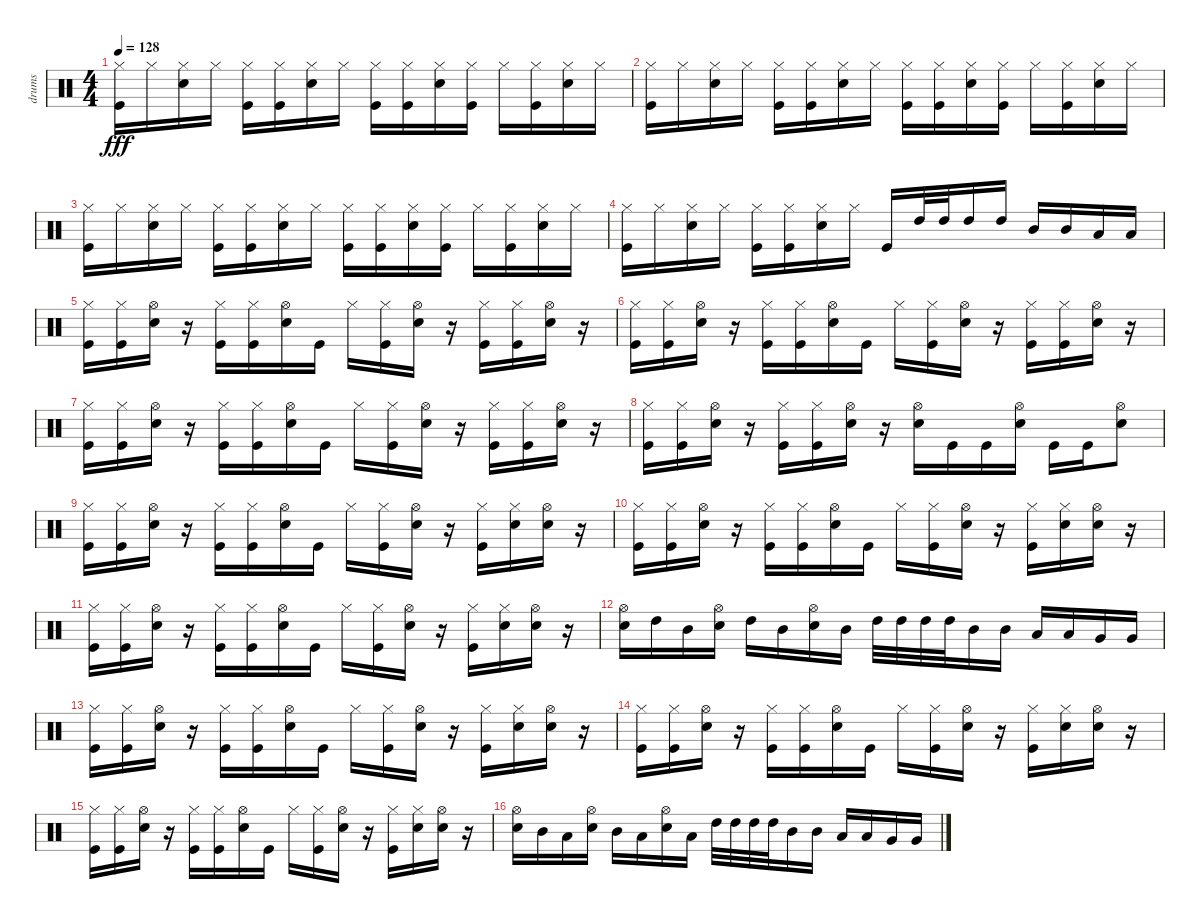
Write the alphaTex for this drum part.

\track ("drums" "drums") {instrument percussion}
\staff {score}
\articulation defaults
\ts (4 4)
\tempo 128
\clef neutral
\ks c
("Hi-Hat (closed)" "Kick (hit)").16{dy fff} "Hi-Hat (closed)".16 ("Hi-Hat (closed)" "Snare (hit) 2").16 "Hi-Hat (closed)".16 ("Kick (hit)" "Hi-Hat (closed)").16 ("Kick (hit)" "Hi-Hat (closed)").16 ("Snare (hit) 2" "Hi-Hat (closed)").16 "Hi-Hat (closed)".16 ("Kick (hit)" "Hi-Hat (closed)").16 ("Kick (hit)" "Hi-Hat (closed)").16 ("Snare (hit) 2" "Hi-Hat (closed)").16 ("Hi-Hat (closed)" "Kick (hit)").16 "Hi-Hat (closed)".16 ("Kick (hit)" "Hi-Hat (closed)").16 ("Snare (hit) 2" "Hi-Hat (closed)").16 "Hi-Hat (closed)".16 |
("Hi-Hat (closed)" "Kick (hit)").16 "Hi-Hat (closed)".16 ("Hi-Hat (closed)" "Snare (hit) 2").16 "Hi-Hat (closed)".16 ("Kick (hit)" "Hi-Hat (closed)").16 ("Kick (hit)" "Hi-Hat (closed)").16 ("Snare (hit) 2" "Hi-Hat (closed)").16 "Hi-Hat (closed)".16 ("Kick (hit)" "Hi-Hat (closed)").16 ("Kick (hit)" "Hi-Hat (closed)").16 ("Snare (hit) 2" "Hi-Hat (closed)").16 ("Hi-Hat (closed)" "Kick (hit)").16 "Hi-Hat (closed)".16 ("Kick (hit)" "Hi-Hat (closed)").16 ("Snare (hit) 2" "Hi-Hat (closed)").16 "Hi-Hat (closed)".16 |
("Hi-Hat (closed)" "Kick (hit)").16 "Hi-Hat (closed)".16 ("Hi-Hat (closed)" "Snare (hit) 2").16 "Hi-Hat (closed)".16 ("Kick (hit)" "Hi-Hat (closed)").16 ("Kick (hit)" "Hi-Hat (closed)").16 ("Snare (hit) 2" "Hi-Hat (closed)").16 "Hi-Hat (closed)".16 ("Kick (hit)" "Hi-Hat (closed)").16 ("Kick (hit)" "Hi-Hat (closed)").16 ("Snare (hit) 2" "Hi-Hat (closed)").16 ("Hi-Hat (closed)" "Kick (hit)").16 "Hi-Hat (closed)".16 ("Kick (hit)" "Hi-Hat (closed)").16 ("Snare (hit) 2" "Hi-Hat (closed)").16 "Hi-Hat (closed)".16 |
("Hi-Hat (closed)" "Kick (hit)").16 "Hi-Hat (closed)".16 ("Hi-Hat (closed)" "Snare (hit) 2").16 "Hi-Hat (closed)".16 ("Kick (hit)" "Hi-Hat (closed)").16 ("Kick (hit)" "Hi-Hat (closed)").16 ("Snare (hit) 2" "Hi-Hat (closed)").16 "Hi-Hat (closed)".16 "Kick (hit)".16 "High Tom (hit)".32 "High Tom (hit)".32 "High Tom (hit)".16 "High Tom (hit)".16 "Mid Tom (hit)".16 "Mid Tom (hit)".16 "Low Tom (hit)".16 "Low Tom (hit)".16 |
("Hi-Hat (closed)" "Kick (hit)").16 ("Hi-Hat (closed)" "Kick (hit)").16 ("Hi-Hat (open)" "Snare (hit) 2").16 r.16 ("Hi-Hat (closed)" "Kick (hit)").16 ("Hi-Hat (closed)" "Kick (hit)").16 ("Hi-Hat (open)" "Snare (hit) 2").16 "Kick (hit)".16 "Hi-Hat (closed)".16 ("Hi-Hat (closed)" "Kick (hit)").16 ("Hi-Hat (open)" "Snare (hit) 2").16 r.16 ("Hi-Hat (closed)" "Kick (hit)").16 ("Hi-Hat (closed)" "Kick (hit)").16 ("Hi-Hat (open)" "Snare (hit) 2").16 r.16 |
("Hi-Hat (closed)" "Kick (hit)").16 ("Hi-Hat (closed)" "Kick (hit)").16 ("Hi-Hat (open)" "Snare (hit) 2").16 r.16 ("Hi-Hat (closed)" "Kick (hit)").16 ("Hi-Hat (closed)" "Kick (hit)").16 ("Hi-Hat (open)" "Snare (hit) 2").16 "Kick (hit)".16 "Hi-Hat (closed)".16 ("Hi-Hat (closed)" "Kick (hit)").16 ("Hi-Hat (open)" "Snare (hit) 2").16 r.16 ("Hi-Hat (closed)" "Kick (hit)").16 ("Hi-Hat (closed)" "Kick (hit)").16 ("Hi-Hat (open)" "Snare (hit) 2").16 r.16 |
("Hi-Hat (closed)" "Kick (hit)").16 ("Hi-Hat (closed)" "Kick (hit)").16 ("Hi-Hat (open)" "Snare (hit) 2").16 r.16 ("Hi-Hat (closed)" "Kick (hit)").16 ("Hi-Hat (closed)" "Kick (hit)").16 ("Hi-Hat (open)" "Snare (hit) 2").16 "Kick (hit)".16 "Hi-Hat (closed)".16 ("Hi-Hat (closed)" "Kick (hit)").16 ("Hi-Hat (open)" "Snare (hit) 2").16 r.16 ("Hi-Hat (closed)" "Kick (hit)").16 ("Hi-Hat (closed)" "Kick (hit)").16 ("Hi-Hat (open)" "Snare (hit) 2").16 r.16 |
("Hi-Hat (closed)" "Kick (hit)").16 ("Hi-Hat (closed)" "Kick (hit)").16 ("Hi-Hat (open)" "Snare (hit) 2").16 r.16 ("Hi-Hat (closed)" "Kick (hit)").16 ("Hi-Hat (closed)" "Kick (hit)").16 ("Hi-Hat (open)" "Snare (hit) 2").16 r.16 ("Snare (hit) 2" "Hi-Hat (open)").16 "Kick (hit)".16 "Kick (hit)".16 ("Snare (hit) 2" "Hi-Hat (open)").16 "Kick (hit)".16 "Kick (hit)".16 ("Snare (hit) 2" "Hi-Hat (open)").8 |
("Hi-Hat (closed)" "Kick (hit)").16 ("Hi-Hat (closed)" "Kick (hit)").16 ("Hi-Hat (open)" "Snare (hit) 2").16 r.16 ("Hi-Hat (closed)" "Kick (hit)").16 ("Hi-Hat (closed)" "Kick (hit)").16 ("Hi-Hat (open)" "Snare (hit) 2").16 "Kick (hit)".16 "Hi-Hat (closed)".16 ("Hi-Hat (closed)" "Kick (hit)").16 ("Hi-Hat (open)" "Snare (hit) 2").16 r.16 ("Hi-Hat (closed)" "Kick (hit)").16 ("Hi-Hat (closed)" "Snare (hit) 2").16 ("Hi-Hat (open)" "Snare (hit) 2").16 r.16 |
("Hi-Hat (closed)" "Kick (hit)").16 ("Hi-Hat (closed)" "Kick (hit)").16 ("Hi-Hat (open)" "Snare (hit) 2").16 r.16 ("Hi-Hat (closed)" "Kick (hit)").16 ("Hi-Hat (closed)" "Kick (hit)").16 ("Hi-Hat (open)" "Snare (hit) 2").16 "Kick (hit)".16 "Hi-Hat (closed)".16 ("Hi-Hat (closed)" "Kick (hit)").16 ("Hi-Hat (open)" "Snare (hit) 2").16 r.16 ("Hi-Hat (closed)" "Kick (hit)").16 ("Hi-Hat (closed)" "Snare (hit) 2").16 ("Hi-Hat (open)" "Snare (hit) 2").16 r.16 |
("Hi-Hat (closed)" "Kick (hit)").16 ("Hi-Hat (closed)" "Kick (hit)").16 ("Hi-Hat (open)" "Snare (hit) 2").16 r.16 ("Hi-Hat (closed)" "Kick (hit)").16 ("Hi-Hat (closed)" "Kick (hit)").16 ("Hi-Hat (open)" "Snare (hit) 2").16 "Kick (hit)".16 "Hi-Hat (closed)".16 ("Hi-Hat (closed)" "Kick (hit)").16 ("Hi-Hat (open)" "Snare (hit) 2").16 r.16 ("Hi-Hat (closed)" "Kick (hit)").16 ("Hi-Hat (closed)" "Snare (hit) 2").16 ("Hi-Hat (open)" "Snare (hit) 2").16 r.16 |
("Snare (hit) 2" "Hi-Hat (open)").16 "High Tom (hit)".16 "Mid Tom (hit)".16 ("Snare (hit) 2" "Hi-Hat (open)").16 "High Tom (hit)".16 "Mid Tom (hit)".16 ("Snare (hit) 2" "Hi-Hat (open)").16 "Mid Tom (hit)".16 "High Tom (hit)".32 "High Tom (hit)".32 "High Tom (hit)".32 "High Tom (hit)".32 "Mid Tom (hit)".16 "Mid Tom (hit)".16 "Low Tom (hit)".16 "Low Tom (hit)".16 "Very Low Tom (hit)".16 "Very Low Tom (hit)".16 |
("Hi-Hat (closed)" "Kick (hit)").16 ("Hi-Hat (closed)" "Kick (hit)").16 ("Hi-Hat (open)" "Snare (hit) 2").16 r.16 ("Hi-Hat (closed)" "Kick (hit)").16 ("Hi-Hat (closed)" "Kick (hit)").16 ("Hi-Hat (open)" "Snare (hit) 2").16 "Kick (hit)".16 "Hi-Hat (closed)".16 ("Hi-Hat (closed)" "Kick (hit)").16 ("Hi-Hat (open)" "Snare (hit) 2").16 r.16 ("Hi-Hat (closed)" "Kick (hit)").16 ("Hi-Hat (closed)" "Snare (hit) 2").16 ("Hi-Hat (open)" "Snare (hit) 2").16 r.16 |
("Hi-Hat (closed)" "Kick (hit)").16 ("Hi-Hat (closed)" "Kick (hit)").16 ("Hi-Hat (open)" "Snare (hit) 2").16 r.16 ("Hi-Hat (closed)" "Kick (hit)").16 ("Hi-Hat (closed)" "Kick (hit)").16 ("Hi-Hat (open)" "Snare (hit) 2").16 "Kick (hit)".16 "Hi-Hat (closed)".16 ("Hi-Hat (closed)" "Kick (hit)").16 ("Hi-Hat (open)" "Snare (hit) 2").16 r.16 ("Hi-Hat (closed)" "Kick (hit)").16 ("Hi-Hat (closed)" "Snare (hit) 2").16 ("Hi-Hat (open)" "Snare (hit) 2").16 r.16 |
("Hi-Hat (closed)" "Kick (hit)").16 ("Hi-Hat (closed)" "Kick (hit)").16 ("Hi-Hat (open)" "Snare (hit) 2").16 r.16 ("Hi-Hat (closed)" "Kick (hit)").16 ("Hi-Hat (closed)" "Kick (hit)").16 ("Hi-Hat (open)" "Snare (hit) 2").16 "Kick (hit)".16 "Hi-Hat (closed)".16 ("Hi-Hat (closed)" "Kick (hit)").16 ("Hi-Hat (open)" "Snare (hit) 2").16 r.16 ("Hi-Hat (closed)" "Kick (hit)").16 ("Hi-Hat (closed)" "Snare (hit) 2").16 ("Hi-Hat (open)" "Snare (hit) 2").16 r.16 |
("Snare (hit) 2" "Hi-Hat (open)").16 "Mid Tom (hit)".16 "Low Tom (hit)".16 ("Snare (hit) 2" "Hi-Hat (open)").16 "Mid Tom (hit)".16 "Low Tom (hit)".16 ("Snare (hit) 2" "Hi-Hat (open)").16 "Low Tom (hit)".16 "High Tom (hit)".32 "High Tom (hit)".32 "High Tom (hit)".32 "High Tom (hit)".32 "Mid Tom (hit)".16 "Mid Tom (hit)".16 "Low Tom (hit)".16 "Low Tom (hit)".16 "Very Low Tom (hit)".16 "Very Low Tom (hit)".16
